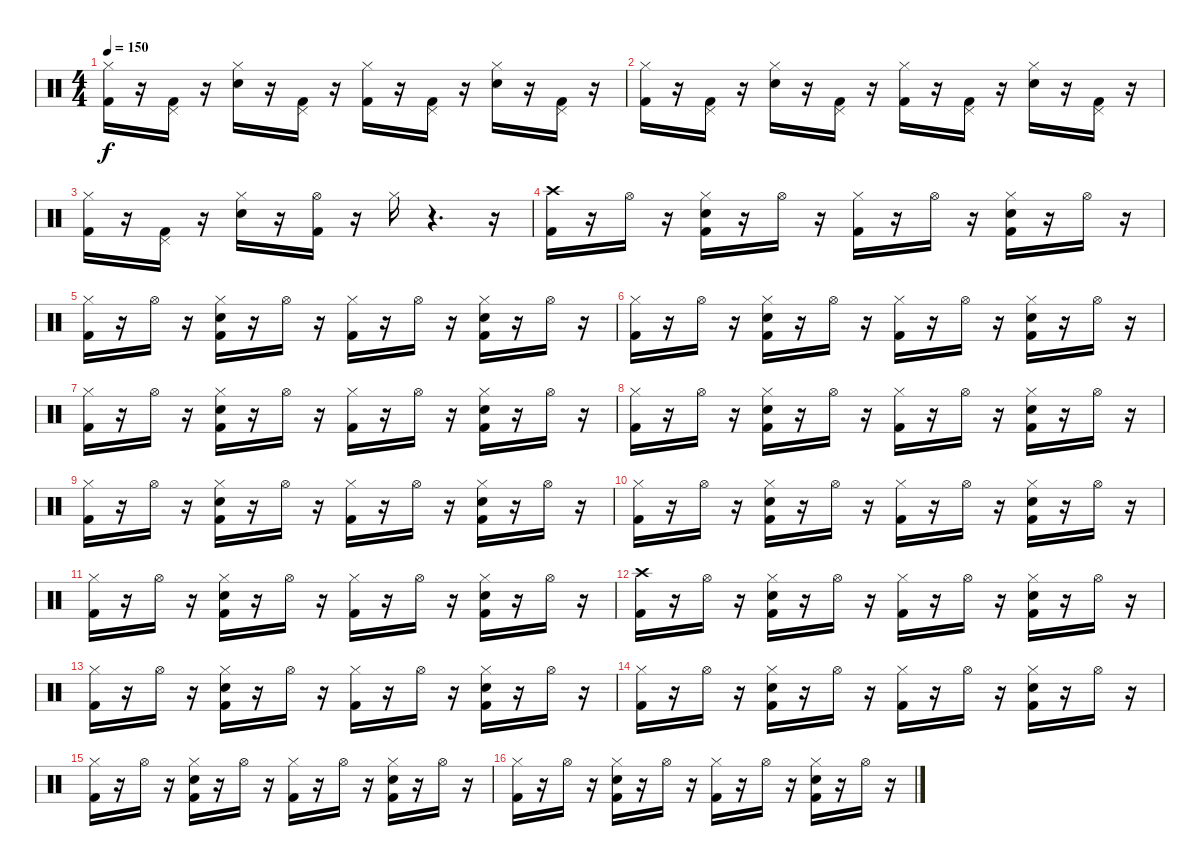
\track "" {instrument percussion}
\staff {score}
\articulation defaults
\ts (4 4)
\tempo 150
\clef neutral
\ks c
("Hi-Hat (closed)" "Kick (hit) 2").16{dy f} r.16 ("Pedal Hi-Hat (hit)" "Kick (hit) 2").16 r.16 ("Electric Snare (hit)" "Hi-Hat (closed)").16 r.16 ("Pedal Hi-Hat (hit)" "Kick (hit) 2").16 r.16 ("Kick (hit) 2" "Hi-Hat (closed)").16 r.16 ("Kick (hit) 2" "Pedal Hi-Hat (hit)").16 r.16 ("Electric Snare (hit)" "Hi-Hat (closed)").16 r.16 ("Pedal Hi-Hat (hit)" "Kick (hit) 2").16 r.16 |
("Kick (hit) 2" "Hi-Hat (closed)").16 r.16 ("Kick (hit) 2" "Pedal Hi-Hat (hit)").16 r.16 ("Hi-Hat (closed)" "Electric Snare (hit)").16 r.16 ("Pedal Hi-Hat (hit)" "Kick (hit) 2").16 r.16 ("Hi-Hat (closed)" "Kick (hit) 2").16 r.16 ("Pedal Hi-Hat (hit)" "Kick (hit) 2").16 r.16 ("Hi-Hat (closed)" "Electric Snare (hit)").16 r.16 ("Pedal Hi-Hat (hit)" "Kick (hit) 2").16 r.16 |
("Kick (hit) 2" "Hi-Hat (closed)").16 r.16 ("Pedal Hi-Hat (hit)" "Kick (hit) 2").16 r.16 ("Electric Snare (hit)" "Hi-Hat (closed)").16 r.16 ("Hi-Hat (open)" "Kick (hit) 2").16 r.16 "Hi-Hat (closed)".16 r.4{d} r.16 |
("Crash high (hit)" "Kick (hit) 2").16 r.16 "Hi-Hat (open)".16 r.16 ("Electric Snare (hit)" "Hi-Hat (closed)" "Kick (hit) 2").16 r.16 "Hi-Hat (open)".16 r.16 ("Hi-Hat (closed)" "Kick (hit) 2").16 r.16 "Hi-Hat (open)".16 r.16 ("Electric Snare (hit)" "Hi-Hat (closed)" "Kick (hit) 2").16 r.16 "Hi-Hat (open)".16 r.16 |
("Hi-Hat (closed)" "Kick (hit) 2").16 r.16 "Hi-Hat (open)".16 r.16 ("Electric Snare (hit)" "Kick (hit) 2" "Hi-Hat (closed)").16 r.16 "Hi-Hat (open)".16 r.16 ("Kick (hit) 2" "Hi-Hat (closed)").16 r.16 "Hi-Hat (open)".16 r.16 ("Electric Snare (hit)" "Kick (hit) 2" "Hi-Hat (closed)").16 r.16 "Hi-Hat (open)".16 r.16 |
("Hi-Hat (closed)" "Kick (hit) 2").16 r.16 "Hi-Hat (open)".16 r.16 ("Electric Snare (hit)" "Hi-Hat (closed)" "Kick (hit) 2").16 r.16 "Hi-Hat (open)".16 r.16 ("Hi-Hat (closed)" "Kick (hit) 2").16 r.16 "Hi-Hat (open)".16 r.16 ("Electric Snare (hit)" "Hi-Hat (closed)" "Kick (hit) 2").16 r.16 "Hi-Hat (open)".16 r.16 |
("Hi-Hat (closed)" "Kick (hit) 2").16 r.16 "Hi-Hat (open)".16 r.16 ("Electric Snare (hit)" "Kick (hit) 2" "Hi-Hat (closed)").16 r.16 "Hi-Hat (open)".16 r.16 ("Kick (hit) 2" "Hi-Hat (closed)").16 r.16 "Hi-Hat (open)".16 r.16 ("Electric Snare (hit)" "Kick (hit) 2" "Hi-Hat (closed)").16 r.16 "Hi-Hat (open)".16 r.16 |
("Hi-Hat (closed)" "Kick (hit) 2").16 r.16 "Hi-Hat (open)".16 r.16 ("Hi-Hat (closed)" "Kick (hit) 2" "Electric Snare (hit)").16 r.16 "Hi-Hat (open)".16 r.16 ("Hi-Hat (closed)" "Kick (hit) 2").16 r.16 "Hi-Hat (open)".16 r.16 ("Hi-Hat (closed)" "Kick (hit) 2" "Electric Snare (hit)").16 r.16 "Hi-Hat (open)".16 r.16 |
("Hi-Hat (closed)" "Kick (hit) 2").16 r.16 "Hi-Hat (open)".16 r.16 ("Electric Snare (hit)" "Kick (hit) 2" "Hi-Hat (closed)").16 r.16 "Hi-Hat (open)".16 r.16 ("Kick (hit) 2" "Hi-Hat (closed)").16 r.16 "Hi-Hat (open)".16 r.16 ("Electric Snare (hit)" "Kick (hit) 2" "Hi-Hat (closed)").16 r.16 "Hi-Hat (open)".16 r.16 |
("Hi-Hat (closed)" "Kick (hit) 2").16 r.16 "Hi-Hat (open)".16 r.16 ("Hi-Hat (closed)" "Kick (hit) 2" "Electric Snare (hit)").16 r.16 "Hi-Hat (open)".16 r.16 ("Hi-Hat (closed)" "Kick (hit) 2").16 r.16 "Hi-Hat (open)".16 r.16 ("Hi-Hat (closed)" "Kick (hit) 2" "Electric Snare (hit)").16 r.16 "Hi-Hat (open)".16 r.16 |
("Hi-Hat (closed)" "Kick (hit) 2").16 r.16 "Hi-Hat (open)".16 r.16 ("Hi-Hat (closed)" "Kick (hit) 2" "Electric Snare (hit)").16 r.16 "Hi-Hat (open)".16 r.16 ("Hi-Hat (closed)" "Kick (hit) 2").16 r.16 "Hi-Hat (open)".16 r.16 ("Hi-Hat (closed)" "Kick (hit) 2" "Electric Snare (hit)").16 r.16 "Hi-Hat (open)".16 r.16 |
("Crash high (hit)" "Kick (hit) 2").16 r.16 "Hi-Hat (open)".16 r.16 ("Electric Snare (hit)" "Kick (hit) 2" "Hi-Hat (closed)").16 r.16 "Hi-Hat (open)".16 r.16 ("Kick (hit) 2" "Hi-Hat (closed)").16 r.16 "Hi-Hat (open)".16 r.16 ("Electric Snare (hit)" "Kick (hit) 2" "Hi-Hat (closed)").16 r.16 "Hi-Hat (open)".16 r.16 |
("Hi-Hat (closed)" "Kick (hit) 2").16 r.16 "Hi-Hat (open)".16 r.16 ("Electric Snare (hit)" "Kick (hit) 2" "Hi-Hat (closed)").16 r.16 "Hi-Hat (open)".16 r.16 ("Kick (hit) 2" "Hi-Hat (closed)").16 r.16 "Hi-Hat (open)".16 r.16 ("Electric Snare (hit)" "Kick (hit) 2" "Hi-Hat (closed)").16 r.16 "Hi-Hat (open)".16 r.16 |
("Hi-Hat (closed)" "Kick (hit) 2").16 r.16 "Hi-Hat (open)".16 r.16 ("Hi-Hat (closed)" "Kick (hit) 2" "Electric Snare (hit)").16 r.16 "Hi-Hat (open)".16 r.16 ("Hi-Hat (closed)" "Kick (hit) 2").16 r.16 "Hi-Hat (open)".16 r.16 ("Hi-Hat (closed)" "Kick (hit) 2" "Electric Snare (hit)").16 r.16 "Hi-Hat (open)".16 r.16 |
("Hi-Hat (closed)" "Kick (hit) 2").16 r.16 "Hi-Hat (open)".16 r.16 ("Electric Snare (hit)" "Kick (hit) 2" "Hi-Hat (closed)").16 r.16 "Hi-Hat (open)".16 r.16 ("Kick (hit) 2" "Hi-Hat (closed)").16 r.16 "Hi-Hat (open)".16 r.16 ("Electric Snare (hit)" "Kick (hit) 2" "Hi-Hat (closed)").16 r.16 "Hi-Hat (open)".16 r.16 |
("Hi-Hat (closed)" "Kick (hit) 2").16 r.16 "Hi-Hat (open)".16 r.16 ("Hi-Hat (closed)" "Kick (hit) 2" "Electric Snare (hit)").16 r.16 "Hi-Hat (open)".16 r.16 ("Hi-Hat (closed)" "Kick (hit) 2").16 r.16 "Hi-Hat (open)".16 r.16 ("Hi-Hat (closed)" "Kick (hit) 2" "Electric Snare (hit)").16 r.16 "Hi-Hat (open)".16 r.16
